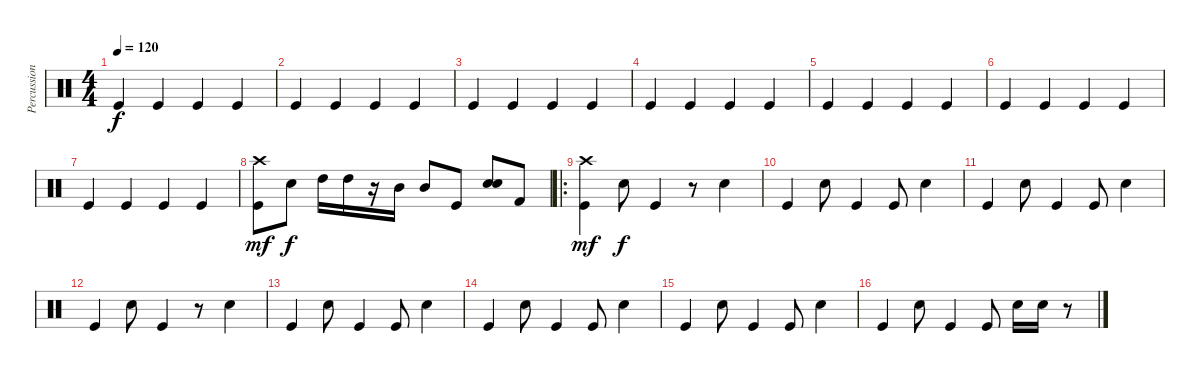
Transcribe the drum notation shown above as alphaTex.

\track ("Percussion" "Percussion") {instrument percussion}
\staff {score}
\articulation defaults
\ts (4 4)
\tempo 120
\clef neutral
\ks c "Kick (hit)".4{dy f} "Kick (hit)".4 "Kick (hit)".4 "Kick (hit)".4
|
"Kick (hit)".4 "Kick (hit)".4 "Kick (hit)".4 "Kick (hit)".4 |
"Kick (hit)".4 "Kick (hit)".4 "Kick (hit)".4 "Kick (hit)".4 |
"Kick (hit)".4 "Kick (hit)".4 "Kick (hit)".4 "Kick (hit)".4 |
"Kick (hit)".4 "Kick (hit)".4 "Kick (hit)".4 "Kick (hit)".4 |
"Kick (hit)".4 "Kick (hit)".4 "Kick (hit)".4 "Kick (hit)".4 |
"Kick (hit)".4 "Kick (hit)".4 "Kick (hit)".4 "Kick (hit)".4 |
("Crash high (hit)" "Kick (hit)").8{dy mf} "Electric Snare (hit)".8{dy f} "High Tom (hit)".16 "High Tom (hit)".16 r.16 "Mid Tom (hit)".16 "Mid Tom (hit)".8 "Kick (hit)".8 ("Electric Snare (hit)" "Electric Snare (hit)").8{bd 120} "Kick (hit) 2".8 |
\ro
("Crash high (hit)" "Kick (hit)").4{dy mf} "Electric Snare (hit)".8{dy f} "Kick (hit)".4 r.8 "Electric Snare (hit)".4 |
"Kick (hit)".4 "Electric Snare (hit)".8 "Kick (hit)".4 "Kick (hit)".8 "Electric Snare (hit)".4 |
"Kick (hit)".4 "Electric Snare (hit)".8 "Kick (hit)".4 "Kick (hit)".8 "Electric Snare (hit)".4 |
"Kick (hit)".4 "Electric Snare (hit)".8 "Kick (hit)".4 r.8 "Electric Snare (hit)".4 |
"Kick (hit)".4 "Electric Snare (hit)".8 "Kick (hit)".4 "Kick (hit)".8 "Electric Snare (hit)".4 |
"Kick (hit)".4 "Electric Snare (hit)".8 "Kick (hit)".4 "Kick (hit)".8 "Electric Snare (hit)".4 |
"Kick (hit)".4 "Electric Snare (hit)".8 "Kick (hit)".4 "Kick (hit)".8 "Electric Snare (hit)".4 |
"Kick (hit)".4 "Electric Snare (hit)".8 "Kick (hit)".4 "Kick (hit)".8 "Electric Snare (hit)".16 "Electric Snare (hit)".16 r.8
